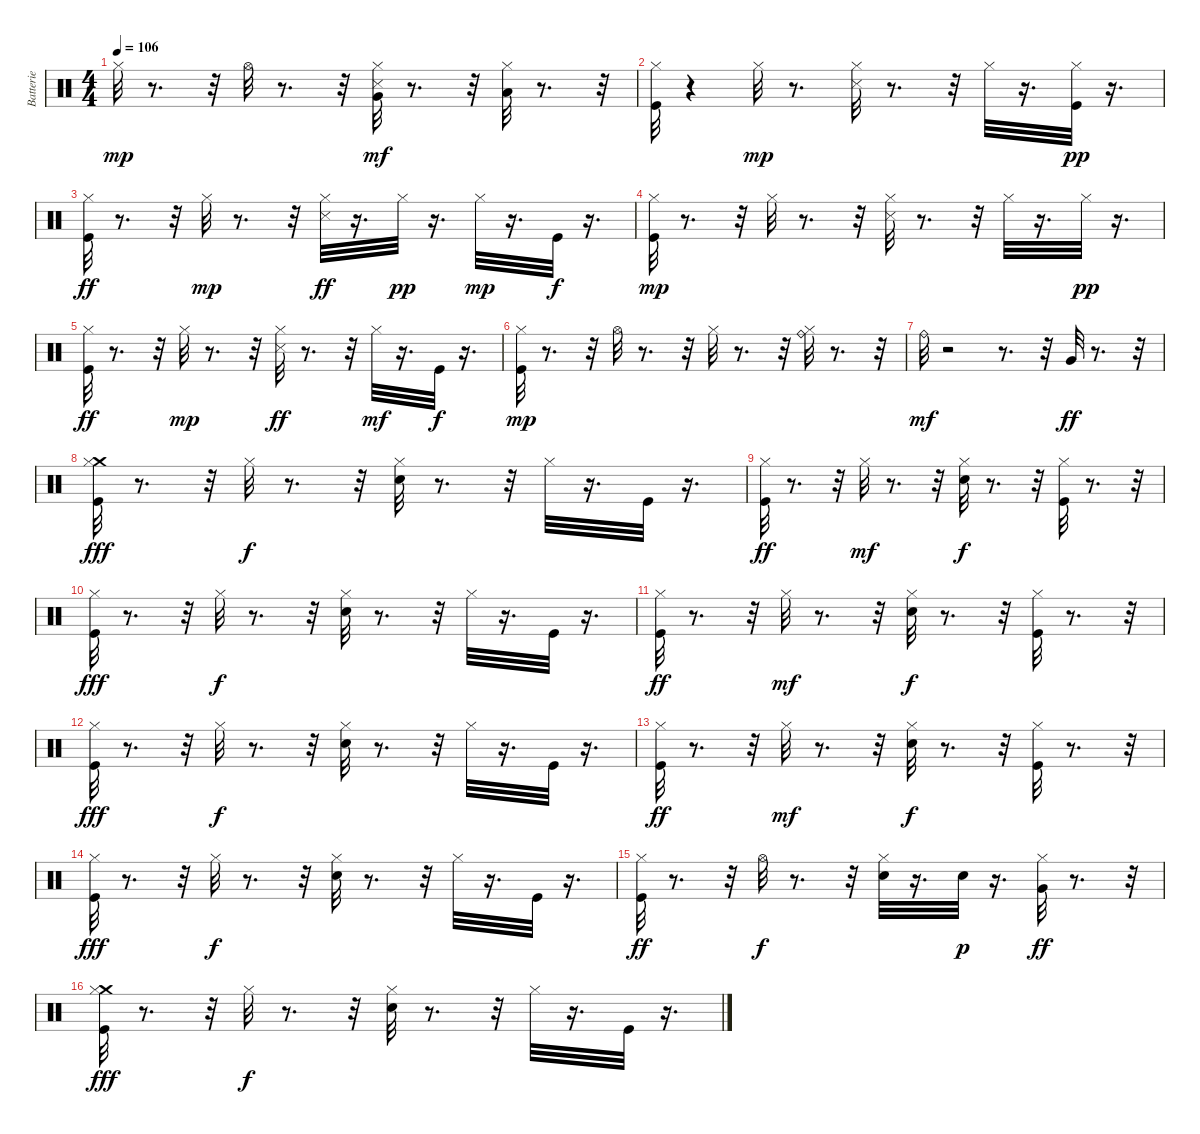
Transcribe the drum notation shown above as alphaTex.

\track ("Batterie" "Batterie") {instrument percussion}
\staff {score}
\articulation defaults
\ts (4 4)
\tempo 106
\clef neutral
\ks c "Hi-Hat (closed)".32{dy mp}
r.8{d} r.32 "Hi-Hat (open)".32 r.8{d} r.32 ("Hi-Hat (closed)" "Snare (side stick) 3" "Very Low Tom (hit)").32{dy mf} r.8{d} r.32 ("Low Tom (hit)" "Hi-Hat (closed)").32 r.8{d} r.32 |
("Kick (hit)" "Hi-Hat (closed)").32 r.4 "Hi-Hat (closed)".32{dy mp} r.8{d} ("Snare (side stick) 3" "Hi-Hat (closed)").32 r.8{d} r.32 "Hi-Hat (closed)".32 r.16{d} ("Hi-Hat (closed)" "Kick (hit)").32{dy pp} r.16{d} |
("Hi-Hat (closed)" "Kick (hit)").32{dy ff} r.8{d} r.32 "Hi-Hat (closed)".32{dy mp} r.8{d} r.32 ("Hi-Hat (closed)" "Snare (side stick) 3").32{dy ff} r.16{d} "Hi-Hat (closed)".32{dy pp} r.16{d} "Hi-Hat (closed)".32{dy mp} r.16{d} "Kick (hit)".32{dy f} r.16{d} |
("Hi-Hat (closed)" "Kick (hit)").32{dy mp} r.8{d} r.32 "Hi-Hat (closed)".32 r.8{d} r.32 ("Snare (side stick) 3" "Hi-Hat (closed)").32 r.8{d} r.32 "Hi-Hat (closed)".32 r.16{d} "Hi-Hat (closed)".32{dy pp} r.16{d} |
("Hi-Hat (closed)" "Kick (hit)").32{dy ff} r.8{d} r.32 "Hi-Hat (closed)".32{dy mp} r.8{d} r.32 ("Hi-Hat (closed)" "Snare (side stick) 3").32{dy ff} r.8{d} r.32 "Hi-Hat (closed)".32{dy mf} r.16{d} "Kick (hit)".32{dy f} r.16{d} |
("Hi-Hat (closed)" "Kick (hit)").32{dy mp} r.8{d} r.32 "Hi-Hat (open)".32 r.8{d} r.32 "Hi-Hat (closed)".32 r.8{d} r.32 ("Hi-Hat (closed)" "Ride (bell)").32 r.8{d} r.32 |
"Ride (bell)".32{dy mf} r.2 r.8{d} r.32 "Very Low Tom (hit)".32{dy ff} r.8{d} r.32 |
("Crash medium (hit)" "Hi-Hat (closed)" "Kick (hit)").32{dy fff} r.8{d} r.32 "Hi-Hat (closed)".32{dy f} r.8{d} r.32 ("Snare (hit) 2" "Hi-Hat (closed)").32 r.8{d} r.32 "Hi-Hat (closed)".32 r.16{d} "Kick (hit)".32 r.16{d} |
("Kick (hit)" "Hi-Hat (closed)").32{dy ff} r.8{d} r.32 "Hi-Hat (closed)".32{dy mf} r.8{d} r.32 ("Snare (hit) 2" "Hi-Hat (closed)").32{dy f} r.8{d} r.32 ("Kick (hit)" "Hi-Hat (closed)").32 r.8{d} r.32 |
("Hi-Hat (closed)" "Kick (hit)").32{dy fff} r.8{d} r.32 "Hi-Hat (closed)".32{dy f} r.8{d} r.32 ("Snare (hit) 2" "Hi-Hat (closed)").32 r.8{d} r.32 "Hi-Hat (closed)".32 r.16{d} "Kick (hit)".32 r.16{d} |
("Kick (hit)" "Hi-Hat (closed)").32{dy ff} r.8{d} r.32 "Hi-Hat (closed)".32{dy mf} r.8{d} r.32 ("Hi-Hat (closed)" "Snare (hit) 2").32{dy f} r.8{d} r.32 ("Kick (hit)" "Hi-Hat (closed)").32 r.8{d} r.32 |
("Hi-Hat (closed)" "Kick (hit)").32{dy fff} r.8{d} r.32 "Hi-Hat (closed)".32{dy f} r.8{d} r.32 ("Snare (hit) 2" "Hi-Hat (closed)").32 r.8{d} r.32 "Hi-Hat (closed)".32 r.16{d} "Kick (hit)".32 r.16{d} |
("Kick (hit)" "Hi-Hat (closed)").32{dy ff} r.8{d} r.32 "Hi-Hat (closed)".32{dy mf} r.8{d} r.32 ("Snare (hit) 2" "Hi-Hat (closed)").32{dy f} r.8{d} r.32 ("Kick (hit)" "Hi-Hat (closed)").32 r.8{d} r.32 |
("Hi-Hat (closed)" "Kick (hit)").32{dy fff} r.8{d} r.32 "Hi-Hat (closed)".32{dy f} r.8{d} r.32 ("Snare (hit) 2" "Hi-Hat (closed)").32 r.8{d} r.32 "Hi-Hat (closed)".32 r.16{d} "Kick (hit)".32 r.16{d} |
("Kick (hit)" "Hi-Hat (closed)").32{dy ff} r.8{d} r.32 "Hi-Hat (open)".32{dy f} r.8{d} r.32 ("Hi-Hat (closed)" "Snare (hit) 2").32 r.16{d} "Snare (hit) 2".32{dy p} r.16{d} ("Very Low Tom (hit)" "Hi-Hat (closed)").32{dy ff} r.8{d} r.32 |
("Crash medium (hit)" "Hi-Hat (closed)" "Kick (hit)").32{dy fff} r.8{d} r.32 "Hi-Hat (closed)".32{dy f} r.8{d} r.32 ("Snare (hit) 2" "Hi-Hat (closed)").32 r.8{d} r.32 "Hi-Hat (closed)".32 r.16{d} "Kick (hit)".32 r.16{d}
